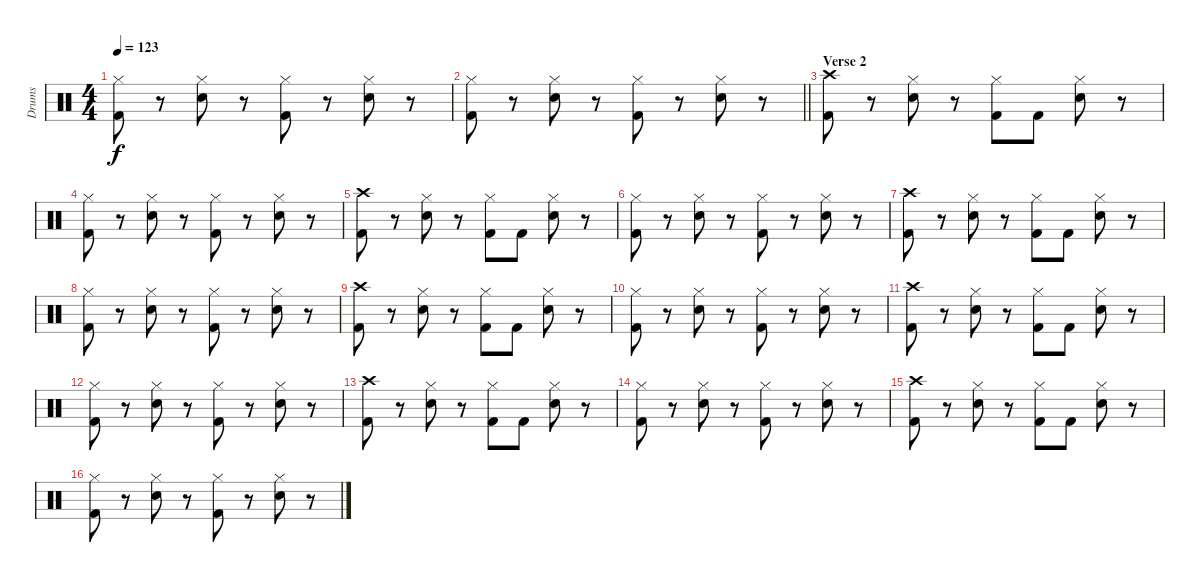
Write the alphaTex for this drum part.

\track ("Drums" "Drums") {instrument percussion}
\staff {score}
\articulation defaults
\ts (4 4)
\tempo 123
\clef neutral
\ks c
("Hi-Hat (closed)" "Kick (hit) 2").8{dy f} r.8 ("Hi-Hat (closed)" "Snare (hit) 2").8 r.8 ("Hi-Hat (closed)" "Kick (hit) 2").8 r.8 ("Hi-Hat (closed)" "Snare (hit) 2").8 r.8 |
\barLineRight lightlight
("Hi-Hat (closed)" "Kick (hit) 2").8 r.8 ("Hi-Hat (closed)" "Snare (hit) 2").8 r.8 ("Hi-Hat (closed)" "Kick (hit) 2").8 r.8 ("Hi-Hat (closed)" "Snare (hit) 2").8 r.8 |
\section ("" "Verse 2")
("Crash high (hit)" "Kick (hit) 2").8 r.8 ("Hi-Hat (closed)" "Snare (hit) 2").8 r.8 ("Hi-Hat (closed)" "Kick (hit) 2").8 "Kick (hit) 2".8 ("Hi-Hat (closed)" "Snare (hit) 2").8 r.8 |
("Hi-Hat (closed)" "Kick (hit) 2").8 r.8 ("Hi-Hat (closed)" "Snare (hit) 2").8 r.8 ("Hi-Hat (closed)" "Kick (hit) 2").8 r.8 ("Hi-Hat (closed)" "Snare (hit) 2").8 r.8 |
("Crash high (hit)" "Kick (hit) 2").8 r.8 ("Hi-Hat (closed)" "Snare (hit) 2").8 r.8 ("Hi-Hat (closed)" "Kick (hit) 2").8 "Kick (hit) 2".8 ("Hi-Hat (closed)" "Snare (hit) 2").8 r.8 |
("Hi-Hat (closed)" "Kick (hit) 2").8 r.8 ("Hi-Hat (closed)" "Snare (hit) 2").8 r.8 ("Hi-Hat (closed)" "Kick (hit) 2").8 r.8 ("Hi-Hat (closed)" "Snare (hit) 2").8 r.8 |
("Crash high (hit)" "Kick (hit) 2").8 r.8 ("Hi-Hat (closed)" "Snare (hit) 2").8 r.8 ("Hi-Hat (closed)" "Kick (hit) 2").8 "Kick (hit) 2".8 ("Hi-Hat (closed)" "Snare (hit) 2").8 r.8 |
("Hi-Hat (closed)" "Kick (hit) 2").8 r.8 ("Hi-Hat (closed)" "Snare (hit) 2").8 r.8 ("Hi-Hat (closed)" "Kick (hit) 2").8 r.8 ("Hi-Hat (closed)" "Snare (hit) 2").8 r.8 |
("Crash high (hit)" "Kick (hit) 2").8 r.8 ("Hi-Hat (closed)" "Snare (hit) 2").8 r.8 ("Hi-Hat (closed)" "Kick (hit) 2").8 "Kick (hit) 2".8 ("Hi-Hat (closed)" "Snare (hit) 2").8 r.8 |
("Hi-Hat (closed)" "Kick (hit) 2").8 r.8 ("Hi-Hat (closed)" "Snare (hit) 2").8 r.8 ("Hi-Hat (closed)" "Kick (hit) 2").8 r.8 ("Hi-Hat (closed)" "Snare (hit) 2").8 r.8 |
("Crash high (hit)" "Kick (hit) 2").8 r.8 ("Hi-Hat (closed)" "Snare (hit) 2").8 r.8 ("Hi-Hat (closed)" "Kick (hit) 2").8 "Kick (hit) 2".8 ("Hi-Hat (closed)" "Snare (hit) 2").8 r.8 |
("Hi-Hat (closed)" "Kick (hit) 2").8 r.8 ("Hi-Hat (closed)" "Snare (hit) 2").8 r.8 ("Hi-Hat (closed)" "Kick (hit) 2").8 r.8 ("Hi-Hat (closed)" "Snare (hit) 2").8 r.8 |
("Crash high (hit)" "Kick (hit) 2").8 r.8 ("Hi-Hat (closed)" "Snare (hit) 2").8 r.8 ("Hi-Hat (closed)" "Kick (hit) 2").8 "Kick (hit) 2".8 ("Hi-Hat (closed)" "Snare (hit) 2").8 r.8 |
("Hi-Hat (closed)" "Kick (hit) 2").8 r.8 ("Hi-Hat (closed)" "Snare (hit) 2").8 r.8 ("Hi-Hat (closed)" "Kick (hit) 2").8 r.8 ("Hi-Hat (closed)" "Snare (hit) 2").8 r.8 |
("Crash high (hit)" "Kick (hit) 2").8 r.8 ("Hi-Hat (closed)" "Snare (hit) 2").8 r.8 ("Hi-Hat (closed)" "Kick (hit) 2").8 "Kick (hit) 2".8 ("Hi-Hat (closed)" "Snare (hit) 2").8 r.8 |
("Hi-Hat (closed)" "Kick (hit) 2").8 r.8 ("Hi-Hat (closed)" "Snare (hit) 2").8 r.8 ("Hi-Hat (closed)" "Kick (hit) 2").8 r.8 ("Hi-Hat (closed)" "Snare (hit) 2").8 r.8
